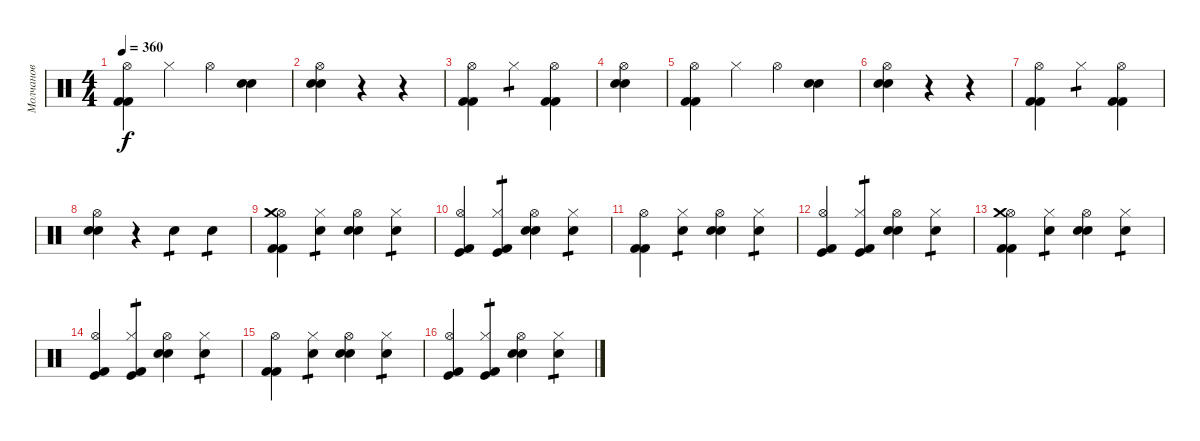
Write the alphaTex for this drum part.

\track ("Молчанов" "Молчанов") {instrument percussion}
\staff {score}
\articulation defaults
\ts (4 4)
\tempo 360
\clef neutral
\ks c
("Kick (hit) 2" "Kick (hit) 2" "Hi-Hat (open)").4{dy f} "Hi-Hat (closed)"{x}.4 "Hi-Hat (open)"{x}.4 ("Snare (hit)"{x} "Snare (hit)"{x}).4 |
("Electric Snare (hit)" "Electric Snare (hit)" "Hi-Hat (open)").4 r.4 r.4 |
("Kick (hit) 2" "Kick (hit) 2" "Hi-Hat (open)").4 "Hi-Hat (closed)".4{tp 1} ("Kick (hit) 2" "Kick (hit) 2" "Hi-Hat (open)").4 |
("Electric Snare (hit)" "Electric Snare (hit)" "Hi-Hat (open)").4 |
("Kick (hit) 2" "Kick (hit) 2" "Hi-Hat (open)").4 "Hi-Hat (closed)"{x}.4 "Hi-Hat (open)"{x}.4 ("Snare (hit)"{x} "Snare (hit)"{x}).4 |
("Electric Snare (hit)" "Electric Snare (hit)" "Hi-Hat (open)").4 r.4 r.4 |
("Kick (hit) 2" "Kick (hit) 2" "Hi-Hat (open)").4 "Hi-Hat (closed)".4{tp 1} ("Kick (hit) 2" "Kick (hit) 2" "Hi-Hat (open)").4 |
("Electric Snare (hit)" "Electric Snare (hit)" "Hi-Hat (open)").4 r.4 "Electric Snare (hit)".4{tp 1} "Electric Snare (hit)".4{tp 1} |
("Kick (hit) 2" "Kick (hit) 2" "Hi-Hat (open)" "Crash medium (hit)").4 ("Snare (hit)"{x} "Hi-Hat (closed)").4{tp 1} ("Electric Snare (hit)" "Electric Snare (hit)" "Hi-Hat (open)").4 ("Snare (hit)"{x} "Hi-Hat (closed)").4{tp 1} |
("Kick (hit) 2" "Kick (hit)" "Hi-Hat (open)").4 ("Kick (hit) 2" "Kick (hit)" "Hi-Hat (closed)").4{tp 1} ("Electric Snare (hit)" "Electric Snare (hit)" "Hi-Hat (open)").4 ("Snare (hit)"{x} "Hi-Hat (closed)").4{tp 1} |
("Kick (hit) 2" "Kick (hit) 2" "Hi-Hat (open)").4 ("Snare (hit)"{x} "Hi-Hat (closed)").4{tp 1} ("Electric Snare (hit)" "Electric Snare (hit)" "Hi-Hat (open)").4 ("Snare (hit)"{x} "Hi-Hat (closed)").4{tp 1} |
("Kick (hit) 2" "Kick (hit)" "Hi-Hat (open)").4 ("Kick (hit) 2" "Kick (hit)" "Hi-Hat (closed)").4{tp 1} ("Electric Snare (hit)" "Electric Snare (hit)" "Hi-Hat (open)").4 ("Snare (hit)"{x} "Hi-Hat (closed)").4{tp 1} |
("Kick (hit) 2" "Kick (hit) 2" "Hi-Hat (open)" "Crash medium (hit)").4 ("Snare (hit)"{x} "Hi-Hat (closed)").4{tp 1} ("Electric Snare (hit)" "Electric Snare (hit)" "Hi-Hat (open)").4 ("Snare (hit)"{x} "Hi-Hat (closed)").4{tp 1} |
("Kick (hit) 2" "Kick (hit)" "Hi-Hat (open)").4 ("Kick (hit) 2" "Kick (hit)" "Hi-Hat (closed)").4{tp 1} ("Electric Snare (hit)" "Electric Snare (hit)" "Hi-Hat (open)").4 ("Snare (hit)"{x} "Hi-Hat (closed)").4{tp 1} |
("Kick (hit) 2" "Kick (hit) 2" "Hi-Hat (open)").4 ("Snare (hit)"{x} "Hi-Hat (closed)").4{tp 1} ("Electric Snare (hit)" "Electric Snare (hit)" "Hi-Hat (open)").4 ("Snare (hit)"{x} "Hi-Hat (closed)").4{tp 1} |
("Kick (hit) 2" "Kick (hit)" "Hi-Hat (open)").4 ("Kick (hit) 2" "Kick (hit)" "Hi-Hat (closed)").4{tp 1} ("Electric Snare (hit)" "Electric Snare (hit)" "Hi-Hat (open)").4 ("Snare (hit)"{x} "Hi-Hat (closed)").4{tp 1}
